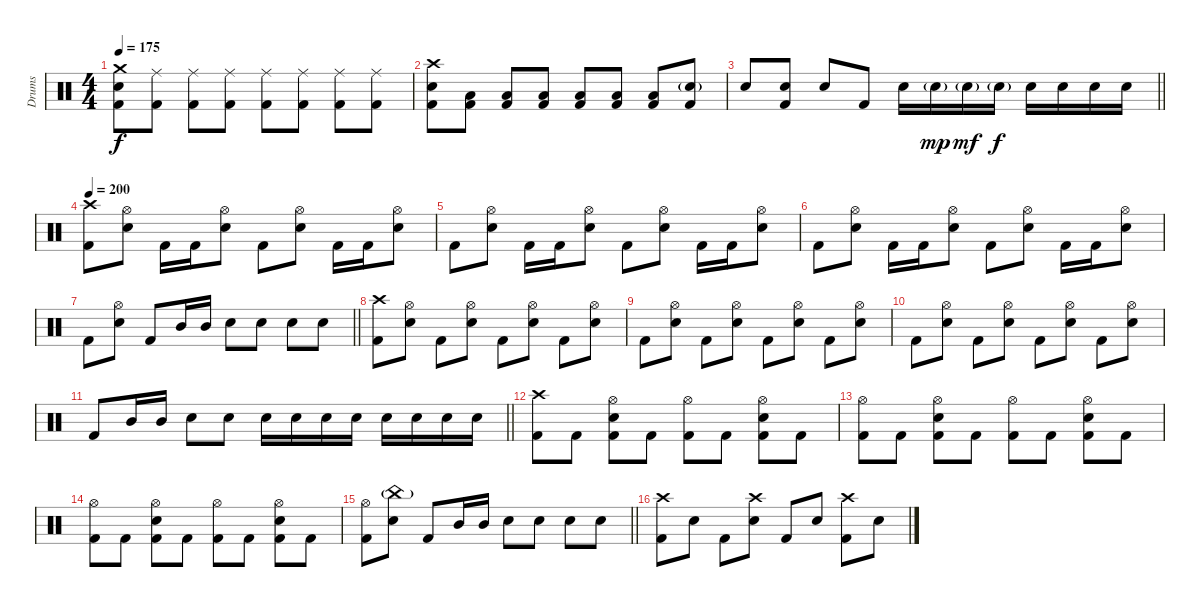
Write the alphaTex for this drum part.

\track ("Drums" "Drums") {instrument percussion}
\staff {score}
\articulation defaults
\ts (4 4)
\tempo 175
\clef neutral
\ks c
("Crash medium (hit)" "Electric Snare (hit)" "Kick (hit) 2").8{dy f} ("Ride (middle)" "Kick (hit) 2").8 ("Ride (middle)" "Kick (hit) 2").8 ("Ride (middle)" "Kick (hit) 2").8 ("Ride (middle)" "Kick (hit) 2").8 ("Ride (middle)" "Kick (hit) 2").8 ("Ride (middle)" "Kick (hit) 2").8 ("Ride (middle)" "Kick (hit) 2").8 |
("Crash high (hit)" "Electric Snare (hit)" "Kick (hit) 2").8 ("Low Tom (hit)" "Kick (hit) 2").8 ("Low Tom (hit)" "Kick (hit) 2").8 ("Low Tom (hit)" "Kick (hit) 2").8 ("Low Tom (hit)" "Kick (hit) 2").8 ("Low Tom (hit)" "Kick (hit) 2").8 ("Low Tom (hit)" "Kick (hit) 2").8 ("Electric Snare (hit)"{g} "Kick (hit) 2").8 |
\barLineRight lightlight "Electric Snare (hit)".8
("Electric Snare (hit)" "Kick (hit) 2").8 "Electric Snare (hit)".8 "Kick (hit) 2".8 "Electric Snare (hit)".16 "Electric Snare (hit)"{g}.16{dy mp} "Electric Snare (hit)"{g}.16{dy mf} "Electric Snare (hit)"{g}.16{dy f} "Electric Snare (hit)".16 "Electric Snare (hit)".16 "Electric Snare (hit)".16 "Electric Snare (hit)".16 |
\tempo 200
("Crash high (hit)" "Kick (hit) 2").8 ("Hi-Hat (open)" "Electric Snare (hit)").8 "Kick (hit) 2".16 "Kick (hit) 2".16 ("Hi-Hat (open)" "Electric Snare (hit)").8 "Kick (hit) 2".8 ("Hi-Hat (open)" "Electric Snare (hit)").8 "Kick (hit) 2".16 "Kick (hit) 2".16 ("Hi-Hat (open)" "Electric Snare (hit)").8 |
"Kick (hit) 2".8 ("Hi-Hat (open)" "Electric Snare (hit)").8 "Kick (hit) 2".16 "Kick (hit) 2".16 ("Hi-Hat (open)" "Electric Snare (hit)").8 "Kick (hit) 2".8 ("Hi-Hat (open)" "Electric Snare (hit)").8 "Kick (hit) 2".16 "Kick (hit) 2".16 ("Hi-Hat (open)" "Electric Snare (hit)").8 |
"Kick (hit) 2".8 ("Hi-Hat (open)" "Electric Snare (hit)").8 "Kick (hit) 2".16 "Kick (hit) 2".16 ("Hi-Hat (open)" "Electric Snare (hit)").8 "Kick (hit) 2".8 ("Hi-Hat (open)" "Electric Snare (hit)").8 "Kick (hit) 2".16 "Kick (hit) 2".16 ("Hi-Hat (open)" "Electric Snare (hit)").8 |
\barLineRight lightlight "Kick (hit) 2".8
("Hi-Hat (open)" "Electric Snare (hit)").8 "Kick (hit) 2".8 "Mid Tom (hit)".16 "Mid Tom (hit)".16 "Electric Snare (hit)".8 "Electric Snare (hit)".8 "Electric Snare (hit)".8 "Electric Snare (hit)".8 |
("Crash high (hit)" "Kick (hit) 2").8 ("Hi-Hat (open)" "Electric Snare (hit)").8 "Kick (hit) 2".8 ("Hi-Hat (open)" "Electric Snare (hit)").8 "Kick (hit) 2".8 ("Hi-Hat (open)" "Electric Snare (hit)").8 "Kick (hit) 2".8 ("Hi-Hat (open)" "Electric Snare (hit)").8 |
"Kick (hit) 2".8 ("Hi-Hat (open)" "Electric Snare (hit)").8 "Kick (hit) 2".8 ("Hi-Hat (open)" "Electric Snare (hit)").8 "Kick (hit) 2".8 ("Hi-Hat (open)" "Electric Snare (hit)").8 "Kick (hit) 2".8 ("Hi-Hat (open)" "Electric Snare (hit)").8 |
"Kick (hit) 2".8 ("Hi-Hat (open)" "Electric Snare (hit)").8 "Kick (hit) 2".8 ("Hi-Hat (open)" "Electric Snare (hit)").8 "Kick (hit) 2".8 ("Hi-Hat (open)" "Electric Snare (hit)").8 "Kick (hit) 2".8 ("Hi-Hat (open)" "Electric Snare (hit)").8 |
\barLineRight lightlight "Kick (hit) 2".8 "Mid Tom (hit)".16 "Mid Tom (hit)".16 "Electric Snare (hit)".8 "Electric Snare (hit)".8 "Electric Snare (hit)".16 "Electric Snare (hit)".16 "Electric Snare (hit)".16 "Electric Snare (hit)".16 "Electric Snare (hit)".16 "Electric Snare (hit)".16 "Electric Snare (hit)".16 "Electric Snare (hit)".16
|
("Crash high (hit)" "Kick (hit) 2").8 "Kick (hit) 2".8 ("Hi-Hat (open)" "Electric Snare (hit)" "Kick (hit) 2").8 "Kick (hit) 2".8 ("Hi-Hat (open)" "Kick (hit) 2").8 "Kick (hit) 2".8 ("Hi-Hat (open)" "Electric Snare (hit)" "Kick (hit) 2").8 "Kick (hit) 2".8 |
("Hi-Hat (open)" "Kick (hit) 2").8 "Kick (hit) 2".8 ("Hi-Hat (open)" "Electric Snare (hit)" "Kick (hit) 2").8 "Kick (hit) 2".8 ("Hi-Hat (open)" "Kick (hit) 2").8 "Kick (hit) 2".8 ("Hi-Hat (open)" "Electric Snare (hit)" "Kick (hit) 2").8 "Kick (hit) 2".8 |
("Hi-Hat (open)" "Kick (hit) 2").8 "Kick (hit) 2".8 ("Hi-Hat (open)" "Electric Snare (hit)" "Kick (hit) 2").8 "Kick (hit) 2".8 ("Hi-Hat (open)" "Kick (hit) 2").8 "Kick (hit) 2".8 ("Hi-Hat (open)" "Electric Snare (hit)" "Kick (hit) 2").8 "Kick (hit) 2".8 |
\barLineRight lightlight
("Hi-Hat (open)" "Kick (hit) 2").8 ("China (hit)"{g} "Electric Snare (hit)").8 "Kick (hit) 2".8 "Mid Tom (hit)".16 "Mid Tom (hit)".16 "Electric Snare (hit)".8 "Electric Snare (hit)".8 "Electric Snare (hit)".8 "Electric Snare (hit)".8 |
("Crash high (hit)" "Kick (hit) 2").8 "Electric Snare (hit)".8 "Kick (hit) 2".8 ("Crash high (hit)" "Electric Snare (hit)").8 "Kick (hit) 2".8 "Electric Snare (hit)".8 ("Crash high (hit)" "Kick (hit) 2").8 "Electric Snare (hit)".8
